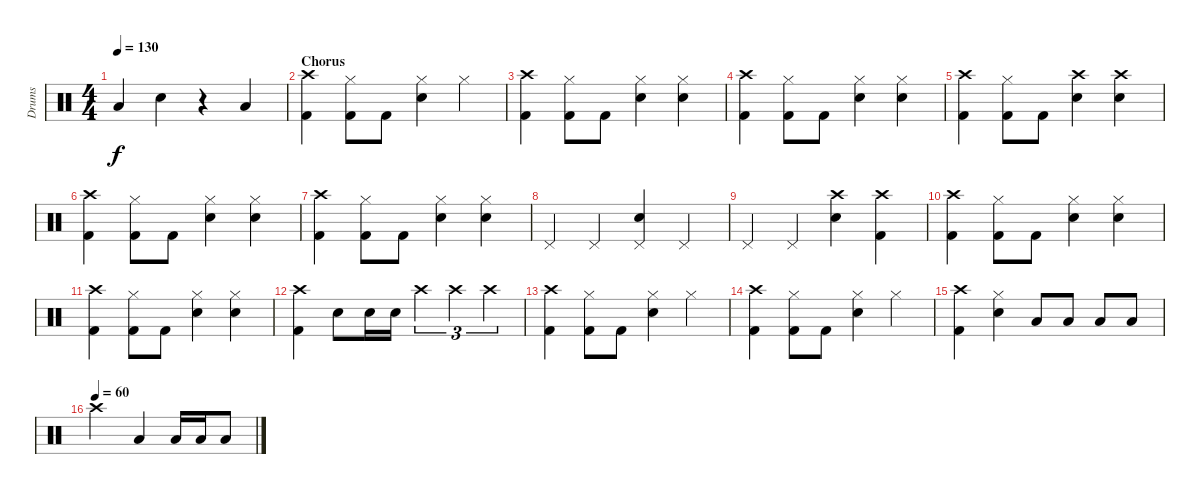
\track ("Drums" "Drums") {instrument percussion}
\staff {score}
\articulation defaults
\ts (4 4)
\tempo 130
\clef neutral
\ks c "Low Tom (hit)".4{dy f} "Snare (hit) 2".4
r.4 "Low Tom (hit)".4 |
\section ("" "Chorus")
("Crash high (hit)" "Kick (hit) 2").4 ("Hi-Hat (closed)" "Kick (hit) 2").8 "Kick (hit) 2".8 ("Hi-Hat (closed)" "Snare (hit) 2").4 "Hi-Hat (closed)".4 |
("Crash high (hit)" "Kick (hit) 2").4 ("Hi-Hat (closed)" "Kick (hit) 2").8 "Kick (hit) 2".8 ("Hi-Hat (closed)" "Snare (hit) 2").4 ("Hi-Hat (closed)" "Snare (hit) 2").4 |
("Crash high (hit)" "Kick (hit) 2").4 ("Hi-Hat (closed)" "Kick (hit) 2").8 "Kick (hit) 2".8 ("Hi-Hat (closed)" "Snare (hit) 2").4 ("Hi-Hat (closed)" "Snare (hit) 2").4 |
("Crash high (hit)" "Kick (hit) 2").4 ("Hi-Hat (closed)" "Kick (hit) 2").8 "Kick (hit) 2".8 ("Crash high (hit)" "Snare (hit) 2").4 ("Crash high (hit)" "Snare (hit) 2").4 |
("Crash high (hit)" "Kick (hit) 2").4 ("Hi-Hat (closed)" "Kick (hit) 2").8 "Kick (hit) 2".8 ("Hi-Hat (closed)" "Snare (hit) 2").4 ("Hi-Hat (closed)" "Snare (hit) 2").4 |
("Crash high (hit)" "Kick (hit) 2").4 ("Hi-Hat (closed)" "Kick (hit) 2").8 "Kick (hit) 2".8 ("Hi-Hat (closed)" "Snare (hit) 2").4 ("Hi-Hat (closed)" "Snare (hit) 2").4 |
"Pedal Hi-Hat (hit)".4 "Pedal Hi-Hat (hit)".4 ("Pedal Hi-Hat (hit)" "Snare (hit) 2").4 "Pedal Hi-Hat (hit)".4 |
"Pedal Hi-Hat (hit)".4 "Pedal Hi-Hat (hit)".4 ("Crash high (hit)" "Snare (hit) 2").4 ("Crash high (hit)" "Kick (hit) 2").4 |
("Crash high (hit)" "Kick (hit) 2").4 ("Hi-Hat (closed)" "Kick (hit) 2").8 "Kick (hit) 2".8 ("Hi-Hat (closed)" "Snare (hit) 2").4 ("Hi-Hat (closed)" "Snare (hit) 2").4 |
("Crash high (hit)" "Kick (hit) 2").4 ("Hi-Hat (closed)" "Kick (hit) 2").8 "Kick (hit) 2".8 ("Hi-Hat (closed)" "Snare (hit) 2").4 ("Hi-Hat (closed)" "Snare (hit) 2").4 |
("Crash high (hit)" "Kick (hit) 2").4 "Snare (hit) 2".8 "Snare (hit) 2".16 "Snare (hit) 2".16 "Crash high (hit)".4{tu (3 2)} "Crash high (hit)".4{tu (3 2)} "Crash high (hit)".4{tu (3 2)} |
("Crash high (hit)" "Kick (hit) 2").4 ("Hi-Hat (closed)" "Kick (hit) 2").8 "Kick (hit) 2".8 ("Hi-Hat (closed)" "Snare (hit) 2").4 "Hi-Hat (closed)".4 |
("Crash high (hit)" "Kick (hit) 2").4 ("Hi-Hat (closed)" "Kick (hit) 2").8 "Kick (hit) 2".8 ("Hi-Hat (closed)" "Snare (hit) 2").4 "Hi-Hat (closed)".4 |
("Crash high (hit)" "Kick (hit) 2").4 ("Hi-Hat (closed)" "Snare (hit) 2").4 "Low Tom (hit)".8 "Low Tom (hit)".8 "Low Tom (hit)".8 "Low Tom (hit)".8 |
\tempo (60)
"Crash high (hit)".2 "Low Tom (hit)".4 "Low Tom (hit)".16 "Low Tom (hit)".16 "Low Tom (hit)".8
